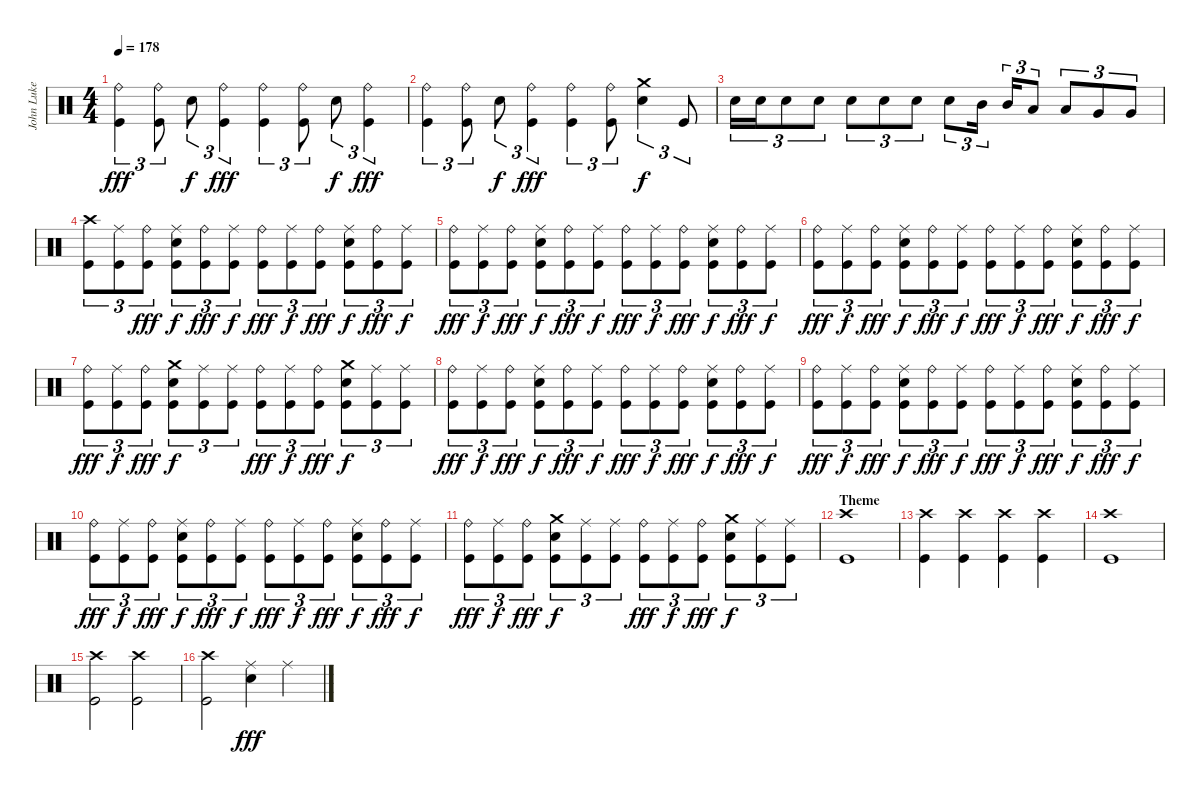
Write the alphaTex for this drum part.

\track ("John Luke (Drums)" "John Luke ") {instrument percussion}
\staff {score}
\articulation defaults
\ts (4 4)
\tempo 178
\clef neutral
\ks c
("Ride (bell)" "Kick (hit)").4{tu (3 2) dy fff} ("Ride (bell)" "Kick (hit)").8{tu (3 2)} "Electric Snare (hit)".8{tu (3 2) dy f} ("Ride (bell)" "Kick (hit)").4{tu (3 2) dy fff} ("Ride (bell)" "Kick (hit)").4{tu (3 2)} ("Ride (bell)" "Kick (hit)").8{tu (3 2)} "Electric Snare (hit)".8{tu (3 2) dy f} ("Ride (bell)" "Kick (hit)").4{tu (3 2) dy fff} |
("Ride (bell)" "Kick (hit)").4{tu (3 2)} ("Ride (bell)" "Kick (hit)").8{tu (3 2)} "Electric Snare (hit)".8{tu (3 2) dy f} ("Ride (bell)" "Kick (hit)").4{tu (3 2) dy fff} ("Ride (bell)" "Kick (hit)").4{tu (3 2)} ("Ride (bell)" "Kick (hit)").8{tu (3 2)} ("Crash medium (hit)" "Electric Snare (hit)").4{tu (3 2) dy f} "Kick (hit)".8{tu (3 2)} |
"Electric Snare (hit)".16{tu (3 2)} "Electric Snare (hit)".16{tu (3 2)} "Electric Snare (hit)".8{tu (3 2)} "Electric Snare (hit)".8{tu (3 2)} "Electric Snare (hit)".8{tu (3 2)} "Electric Snare (hit)".8{tu (3 2)} "Electric Snare (hit)".8{tu (3 2)} "Electric Snare (hit)".8{tu (3 2)} "Mid Tom (hit)".16{tu (3 2)} "Mid Tom (hit)".16{tu (3 2)} "Low Tom (hit)".8{tu (3 2)} "Low Tom (hit)".8{tu (3 2)} "Very Low Tom (hit)".8{tu (3 2)} "Very Low Tom (hit)".8{tu (3 2)} |
("Crash high (hit)" "Kick (hit)").8{tu (3 2)} ("Ride (middle)" "Kick (hit)").8{tu (3 2)} ("Ride (bell)" "Kick (hit)").8{tu (3 2) dy fff} ("Ride (middle)" "Electric Snare (hit)" "Kick (hit)").8{tu (3 2) dy f} ("Ride (bell)" "Kick (hit)").8{tu (3 2) dy fff} ("Ride (middle)" "Kick (hit)").8{tu (3 2) dy f} ("Ride (bell)" "Kick (hit)").8{tu (3 2) dy fff} ("Ride (middle)" "Kick (hit)").8{tu (3 2) dy f} ("Ride (bell)" "Kick (hit)").8{tu (3 2) dy fff} ("Ride (middle)" "Electric Snare (hit)" "Kick (hit)").8{tu (3 2) dy f} ("Ride (bell)" "Kick (hit)").8{tu (3 2) dy fff} ("Ride (middle)" "Kick (hit)").8{tu (3 2) dy f} |
("Ride (bell)" "Kick (hit)").8{tu (3 2) dy fff} ("Ride (middle)" "Kick (hit)").8{tu (3 2) dy f} ("Ride (bell)" "Kick (hit)").8{tu (3 2) dy fff} ("Ride (middle)" "Electric Snare (hit)" "Kick (hit)").8{tu (3 2) dy f} ("Ride (bell)" "Kick (hit)").8{tu (3 2) dy fff} ("Ride (middle)" "Kick (hit)").8{tu (3 2) dy f} ("Ride (bell)" "Kick (hit)").8{tu (3 2) dy fff} ("Ride (middle)" "Kick (hit)").8{tu (3 2) dy f} ("Ride (bell)" "Kick (hit)").8{tu (3 2) dy fff} ("Ride (middle)" "Electric Snare (hit)" "Kick (hit)").8{tu (3 2) dy f} ("Ride (bell)" "Kick (hit)").8{tu (3 2) dy fff} ("Ride (middle)" "Kick (hit)").8{tu (3 2) dy f} |
("Ride (bell)" "Kick (hit)").8{tu (3 2) dy fff} ("Ride (middle)" "Kick (hit)").8{tu (3 2) dy f} ("Ride (bell)" "Kick (hit)").8{tu (3 2) dy fff} ("Ride (middle)" "Electric Snare (hit)" "Kick (hit)").8{tu (3 2) dy f} ("Ride (bell)" "Kick (hit)").8{tu (3 2) dy fff} ("Ride (middle)" "Kick (hit)").8{tu (3 2) dy f} ("Ride (bell)" "Kick (hit)").8{tu (3 2) dy fff} ("Ride (middle)" "Kick (hit)").8{tu (3 2) dy f} ("Ride (bell)" "Kick (hit)").8{tu (3 2) dy fff} ("Ride (middle)" "Electric Snare (hit)" "Kick (hit)").8{tu (3 2) dy f} ("Ride (bell)" "Kick (hit)").8{tu (3 2) dy fff} ("Ride (middle)" "Kick (hit)").8{tu (3 2) dy f} |
("Ride (bell)" "Kick (hit)").8{tu (3 2) dy fff} ("Ride (middle)" "Kick (hit)").8{tu (3 2) dy f} ("Ride (bell)" "Kick (hit)").8{tu (3 2) dy fff} ("Crash medium (hit)" "Electric Snare (hit)" "Kick (hit)").8{tu (3 2) dy f} ("Ride (middle)" "Kick (hit)").8{tu (3 2)} ("Ride (middle)" "Kick (hit)").8{tu (3 2)} ("Ride (bell)" "Kick (hit)").8{tu (3 2) dy fff} ("Ride (middle)" "Kick (hit)").8{tu (3 2) dy f} ("Ride (bell)" "Kick (hit)").8{tu (3 2) dy fff} ("Crash medium (hit)" "Electric Snare (hit)" "Kick (hit)").8{tu (3 2) dy f} ("Ride (middle)" "Kick (hit)").8{tu (3 2)} ("Ride (middle)" "Kick (hit)").8{tu (3 2)} |
("Ride (bell)" "Kick (hit)").8{tu (3 2) dy fff} ("Ride (middle)" "Kick (hit)").8{tu (3 2) dy f} ("Ride (bell)" "Kick (hit)").8{tu (3 2) dy fff} ("Ride (middle)" "Electric Snare (hit)" "Kick (hit)").8{tu (3 2) dy f} ("Ride (bell)" "Kick (hit)").8{tu (3 2) dy fff} ("Ride (middle)" "Kick (hit)").8{tu (3 2) dy f} ("Ride (bell)" "Kick (hit)").8{tu (3 2) dy fff} ("Ride (middle)" "Kick (hit)").8{tu (3 2) dy f} ("Ride (bell)" "Kick (hit)").8{tu (3 2) dy fff} ("Ride (middle)" "Electric Snare (hit)" "Kick (hit)").8{tu (3 2) dy f} ("Ride (bell)" "Kick (hit)").8{tu (3 2) dy fff} ("Ride (middle)" "Kick (hit)").8{tu (3 2) dy f} |
("Ride (bell)" "Kick (hit)").8{tu (3 2) dy fff} ("Ride (middle)" "Kick (hit)").8{tu (3 2) dy f} ("Ride (bell)" "Kick (hit)").8{tu (3 2) dy fff} ("Ride (middle)" "Electric Snare (hit)" "Kick (hit)").8{tu (3 2) dy f} ("Ride (bell)" "Kick (hit)").8{tu (3 2) dy fff} ("Ride (middle)" "Kick (hit)").8{tu (3 2) dy f} ("Ride (bell)" "Kick (hit)").8{tu (3 2) dy fff} ("Ride (middle)" "Kick (hit)").8{tu (3 2) dy f} ("Ride (bell)" "Kick (hit)").8{tu (3 2) dy fff} ("Ride (middle)" "Electric Snare (hit)" "Kick (hit)").8{tu (3 2) dy f} ("Ride (bell)" "Kick (hit)").8{tu (3 2) dy fff} ("Ride (middle)" "Kick (hit)").8{tu (3 2) dy f} |
("Ride (bell)" "Kick (hit)").8{tu (3 2) dy fff} ("Ride (middle)" "Kick (hit)").8{tu (3 2) dy f} ("Ride (bell)" "Kick (hit)").8{tu (3 2) dy fff} ("Ride (middle)" "Electric Snare (hit)" "Kick (hit)").8{tu (3 2) dy f} ("Ride (bell)" "Kick (hit)").8{tu (3 2) dy fff} ("Ride (middle)" "Kick (hit)").8{tu (3 2) dy f} ("Ride (bell)" "Kick (hit)").8{tu (3 2) dy fff} ("Ride (middle)" "Kick (hit)").8{tu (3 2) dy f} ("Ride (bell)" "Kick (hit)").8{tu (3 2) dy fff} ("Ride (middle)" "Electric Snare (hit)" "Kick (hit)").8{tu (3 2) dy f} ("Ride (bell)" "Kick (hit)").8{tu (3 2) dy fff} ("Ride (middle)" "Kick (hit)").8{tu (3 2) dy f} |
("Ride (bell)" "Kick (hit)").8{tu (3 2) dy fff} ("Ride (middle)" "Kick (hit)").8{tu (3 2) dy f} ("Ride (bell)" "Kick (hit)").8{tu (3 2) dy fff} ("Crash medium (hit)" "Electric Snare (hit)" "Kick (hit)").8{tu (3 2) dy f} ("Ride (middle)" "Kick (hit)").8{tu (3 2)} ("Ride (middle)" "Kick (hit)").8{tu (3 2)} ("Ride (bell)" "Kick (hit)").8{tu (3 2) dy fff} ("Ride (middle)" "Kick (hit)").8{tu (3 2) dy f} ("Ride (bell)" "Kick (hit)").8{tu (3 2) dy fff} ("Crash medium (hit)" "Electric Snare (hit)" "Kick (hit)").8{tu (3 2) dy f} ("Ride (middle)" "Kick (hit)").8{tu (3 2)} ("Ride (middle)" "Kick (hit)").8{tu (3 2)} |
\section ("" "Theme")
("Crash high (hit)" "Kick (hit)").1 |
("Crash high (hit)" "Kick (hit)").4 ("Crash high (hit)" "Kick (hit)").4 ("Crash high (hit)" "Kick (hit)").4 ("Crash high (hit)" "Kick (hit)").4 |
("Crash high (hit)" "Kick (hit)").1 |
("Crash high (hit)" "Kick (hit)").2 ("Crash high (hit)" "Kick (hit)").2 |
("Crash high (hit)" "Kick (hit)").2 ("Ride (middle)" "Electric Snare (hit)").4{dy fff} "Ride (middle)".4
